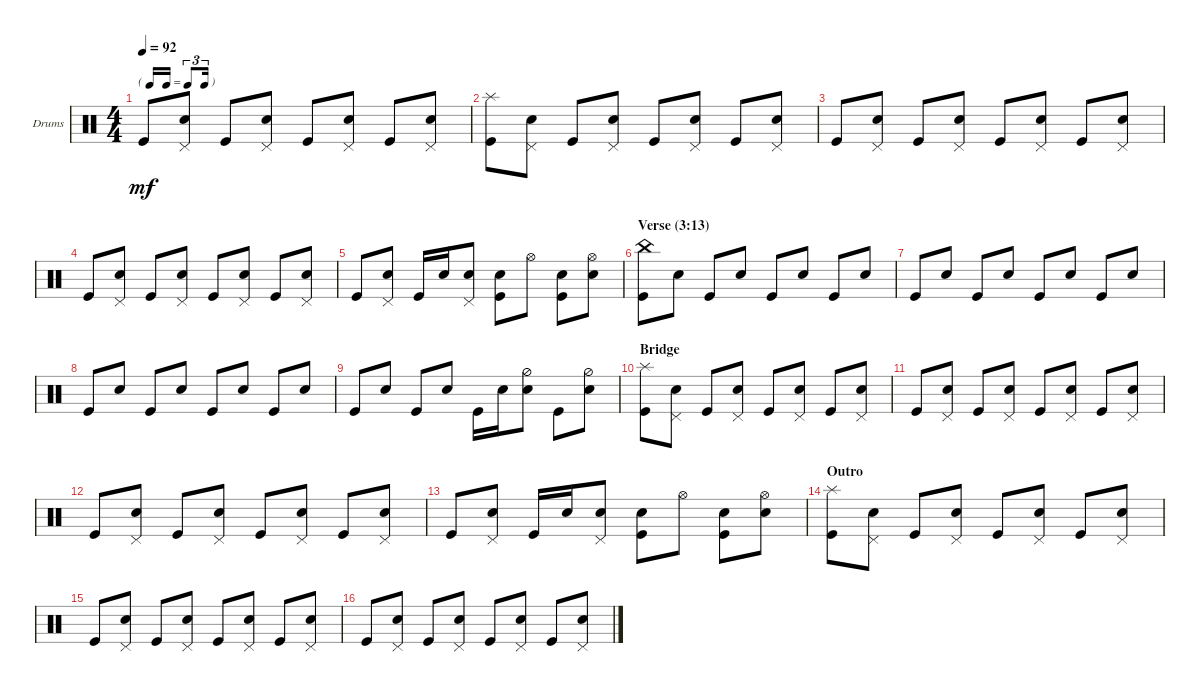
\defaultSystemsLayout 4
\bracketExtendMode nobrackets
\firstSystemTrackNameOrientation horizontal
\otherSystemsTrackNameOrientation horizontal
\track ("Drumkit" "Drums") {instrument percussion}
\staff {score}
\articulation defaults
\ts (4 4)
\tf triplet16th
\tempo 92
\clef neutral
\ks c "Kick (hit)".8{dy mf}
("Snare (hit) 2" "Pedal Hi-Hat (hit)").8 "Kick (hit)".8 ("Snare (hit) 2" "Pedal Hi-Hat (hit)").8 "Kick (hit)".8 ("Snare (hit) 2" "Pedal Hi-Hat (hit)").8 "Kick (hit)".8 ("Snare (hit) 2" "Pedal Hi-Hat (hit)").8 |
("Splash (hit)" "Kick (hit)").8 ("Snare (hit) 2" "Pedal Hi-Hat (hit)").8 "Kick (hit)".8 ("Snare (hit) 2" "Pedal Hi-Hat (hit)").8 "Kick (hit)".8 ("Snare (hit) 2" "Pedal Hi-Hat (hit)").8 "Kick (hit)".8 ("Snare (hit) 2" "Pedal Hi-Hat (hit)").8 |
"Kick (hit)".8 ("Snare (hit) 2" "Pedal Hi-Hat (hit)").8 "Kick (hit)".8 ("Snare (hit) 2" "Pedal Hi-Hat (hit)").8 "Kick (hit)".8 ("Snare (hit) 2" "Pedal Hi-Hat (hit)").8 "Kick (hit)".8 ("Snare (hit) 2" "Pedal Hi-Hat (hit)").8 |
"Kick (hit)".8 ("Snare (hit) 2" "Pedal Hi-Hat (hit)").8 "Kick (hit)".8 ("Snare (hit) 2" "Pedal Hi-Hat (hit)").8 "Kick (hit)".8 ("Snare (hit) 2" "Pedal Hi-Hat (hit)").8 "Kick (hit)".8 ("Snare (hit) 2" "Pedal Hi-Hat (hit)").8 |
"Kick (hit)".8 ("Snare (hit) 2" "Pedal Hi-Hat (hit)").8 "Kick (hit)".16 "Snare (hit) 2".16 ("Snare (hit) 2" "Pedal Hi-Hat (hit)").8 ("Kick (hit)" "Snare (hit) 2").8 "Hi-Hat (open)".8 ("Kick (hit)" "Snare (hit) 2").8 ("Snare (hit) 2" "Hi-Hat (open)").8 |
\section ("" "Verse (3:13) ")
("China (hit)" "Kick (hit)").8 "Snare (hit) 2".8 "Kick (hit)".8 "Snare (hit) 2".8 "Kick (hit)".8 "Snare (hit) 2".8 "Kick (hit)".8 "Snare (hit) 2".8 |
"Kick (hit)".8 "Snare (hit) 2".8 "Kick (hit)".8 "Snare (hit) 2".8 "Kick (hit)".8 "Snare (hit) 2".8 "Kick (hit)".8 "Snare (hit) 2".8 |
"Kick (hit)".8 "Snare (hit) 2".8 "Kick (hit)".8 "Snare (hit) 2".8 "Kick (hit)".8 "Snare (hit) 2".8 "Kick (hit)".8 "Snare (hit) 2".8 |
"Kick (hit)".8 "Snare (hit) 2".8 "Kick (hit)".8 "Snare (hit) 2".8 "Kick (hit)".16 "Snare (hit) 2".16 ("Snare (hit) 2" "Hi-Hat (half)").8 "Kick (hit)".8 ("Snare (hit) 2" "Hi-Hat (half)").8 |
\section ("" "Bridge")
("Splash (hit)" "Kick (hit)").8 ("Snare (hit) 2" "Pedal Hi-Hat (hit)").8 "Kick (hit)".8 ("Snare (hit) 2" "Pedal Hi-Hat (hit)").8 "Kick (hit)".8 ("Snare (hit) 2" "Pedal Hi-Hat (hit)").8 "Kick (hit)".8 ("Snare (hit) 2" "Pedal Hi-Hat (hit)").8 |
"Kick (hit)".8 ("Snare (hit) 2" "Pedal Hi-Hat (hit)").8 "Kick (hit)".8 ("Snare (hit) 2" "Pedal Hi-Hat (hit)").8 "Kick (hit)".8 ("Snare (hit) 2" "Pedal Hi-Hat (hit)").8 "Kick (hit)".8 ("Snare (hit) 2" "Pedal Hi-Hat (hit)").8 |
"Kick (hit)".8 ("Snare (hit) 2" "Pedal Hi-Hat (hit)").8 "Kick (hit)".8 ("Snare (hit) 2" "Pedal Hi-Hat (hit)").8 "Kick (hit)".8 ("Snare (hit) 2" "Pedal Hi-Hat (hit)").8 "Kick (hit)".8 ("Snare (hit) 2" "Pedal Hi-Hat (hit)").8 |
"Kick (hit)".8 ("Snare (hit) 2" "Pedal Hi-Hat (hit)").8 "Kick (hit)".16 "Snare (hit) 2".16 ("Snare (hit) 2" "Pedal Hi-Hat (hit)").8 ("Kick (hit)" "Snare (hit) 2").8 "Hi-Hat (open)".8 ("Kick (hit)" "Snare (hit) 2").8 ("Snare (hit) 2" "Hi-Hat (open)").8 |
\section ("" "Outro")
("Splash (hit)" "Kick (hit)").8 ("Snare (hit) 2" "Pedal Hi-Hat (hit)").8 "Kick (hit)".8 ("Snare (hit) 2" "Pedal Hi-Hat (hit)").8 "Kick (hit)".8 ("Snare (hit) 2" "Pedal Hi-Hat (hit)").8 "Kick (hit)".8 ("Snare (hit) 2" "Pedal Hi-Hat (hit)").8 |
"Kick (hit)".8 ("Snare (hit) 2" "Pedal Hi-Hat (hit)").8 "Kick (hit)".8 ("Snare (hit) 2" "Pedal Hi-Hat (hit)").8 "Kick (hit)".8 ("Snare (hit) 2" "Pedal Hi-Hat (hit)").8 "Kick (hit)".8 ("Snare (hit) 2" "Pedal Hi-Hat (hit)").8 |
"Kick (hit)".8 ("Snare (hit) 2" "Pedal Hi-Hat (hit)").8 "Kick (hit)".8 ("Snare (hit) 2" "Pedal Hi-Hat (hit)").8 "Kick (hit)".8 ("Snare (hit) 2" "Pedal Hi-Hat (hit)").8 "Kick (hit)".8 ("Snare (hit) 2" "Pedal Hi-Hat (hit)").8
